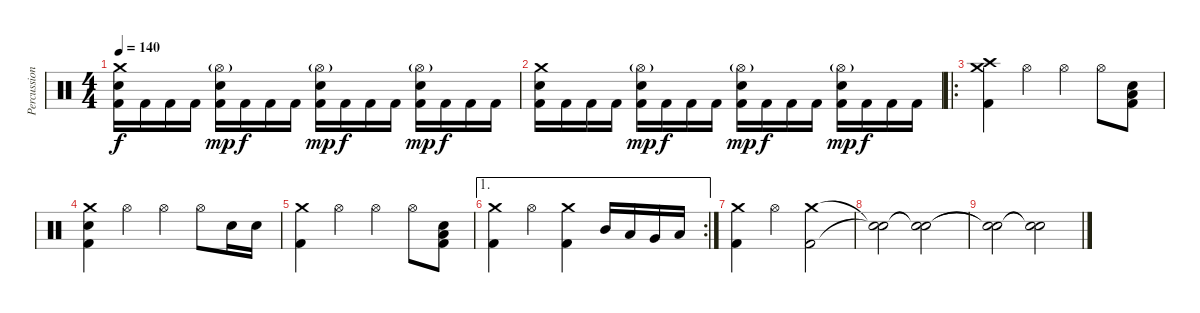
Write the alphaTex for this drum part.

\track ("Percussion" "Percussion") {instrument percussion}
\staff {score}
\articulation defaults
\ts (4 4)
\tempo 140
\clef neutral
\ks c
("Crash medium (hit)" "Electric Snare (hit)" "Kick (hit) 2").16{dy f} "Kick (hit) 2".16 "Kick (hit) 2".16 "Kick (hit) 2".16 ("Hi-Hat (open)"{g} "Electric Snare (hit)" "Kick (hit) 2").16{dy mp} "Kick (hit) 2".16{dy f} "Kick (hit) 2".16 "Kick (hit) 2".16 ("Hi-Hat (open)"{g} "Electric Snare (hit)" "Kick (hit) 2").16{dy mp} "Kick (hit) 2".16{dy f} "Kick (hit) 2".16 "Kick (hit) 2".16 ("Hi-Hat (open)"{g} "Electric Snare (hit)" "Kick (hit) 2").16{dy mp} "Kick (hit) 2".16{dy f} "Kick (hit) 2".16 "Kick (hit) 2".16 |
("Crash medium (hit)" "Electric Snare (hit)" "Kick (hit) 2").16 "Kick (hit) 2".16 "Kick (hit) 2".16 "Kick (hit) 2".16 ("Hi-Hat (open)"{g} "Electric Snare (hit)" "Kick (hit) 2").16{dy mp} "Kick (hit) 2".16{dy f} "Kick (hit) 2".16 "Kick (hit) 2".16 ("Hi-Hat (open)"{g} "Electric Snare (hit)" "Kick (hit) 2").16{dy mp} "Kick (hit) 2".16{dy f} "Kick (hit) 2".16 "Kick (hit) 2".16 ("Hi-Hat (open)"{g} "Electric Snare (hit)" "Kick (hit) 2").16{dy mp} "Kick (hit) 2".16{dy f} "Kick (hit) 2".16 "Kick (hit) 2".16 |
\ro
("Crash medium (hit)" "Crash high (hit)" "Kick (hit) 2").4 "Hi-Hat (open)".4 "Hi-Hat (open)".4 "Hi-Hat (open)".8 ("Low Tom (hit)" "Electric Snare (hit)" "Kick (hit) 2").8 |
("Crash medium (hit)" "Electric Snare (hit)" "Kick (hit) 2").4 "Hi-Hat (open)".4 "Hi-Hat (open)".4 "Hi-Hat (open)".8 "Electric Snare (hit)".16 "Electric Snare (hit)".16 |
("Crash medium (hit)" "Kick (hit) 2").4 "Hi-Hat (open)".4 "Hi-Hat (open)".4 "Hi-Hat (open)".8 ("Low Tom (hit)" "Electric Snare (hit)" "Kick (hit) 2").8 |
\ae 1
\rc 2
("Crash medium (hit)" "Kick (hit) 2").4 "Hi-Hat (open)".4 ("Crash medium (hit)" "Kick (hit) 2").4 "Mid Tom (hit)".16 "Low Tom (hit)".16 "Very Low Tom (hit)".16 "Low Floor Tom (hit)".16 |
("Crash medium (hit)" "Kick (hit) 2").4 "Hi-Hat (open)".4 ("Crash medium (hit)" "Kick (hit) 2").2 |
("Snare (hit)"{t} "Snare (hit)"{t}).2 ("Snare (hit)"{t} "Snare (hit)"{t}).2 |
("Snare (hit)"{t} "Snare (hit)"{t}).2 ("Snare (hit)"{t} "Snare (hit)"{t}).2
